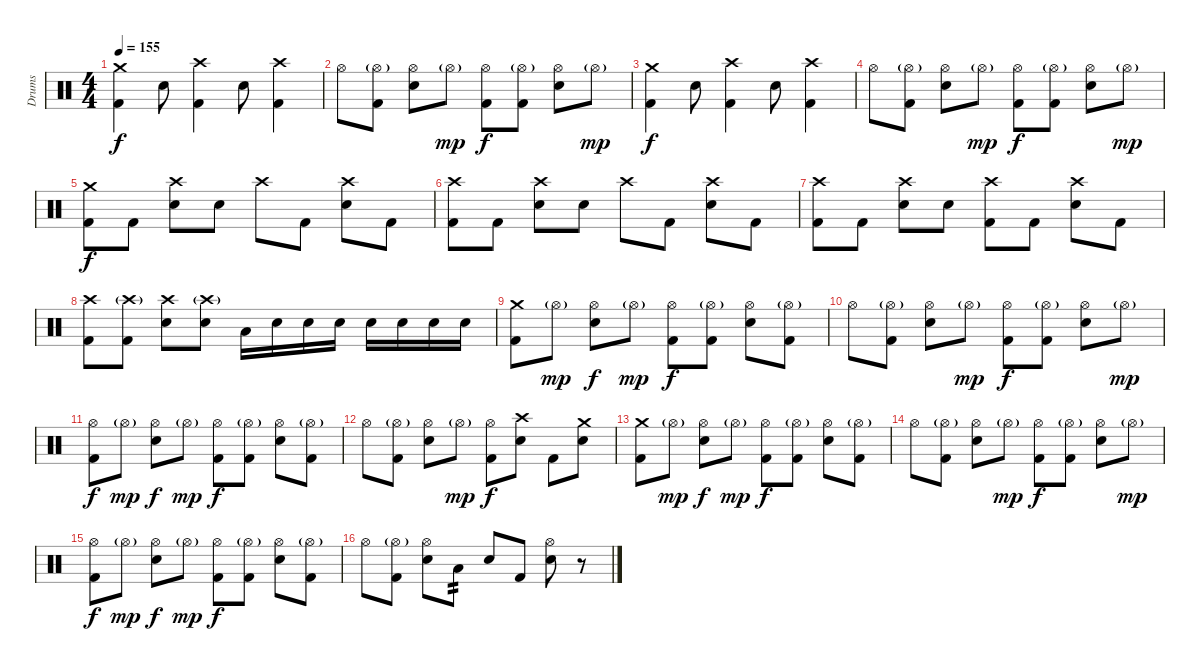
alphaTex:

\track ("Drums" "Drums") {instrument percussion}
\staff {score}
\articulation defaults
\ts (4 4)
\tempo 155
\clef neutral
\ks c
("Crash medium (hit)" "Kick (hit) 2").4{dy f} "Electric Snare (hit)".8 ("Crash high (hit)" "Kick (hit) 2").4 "Electric Snare (hit)".8 ("Crash high (hit)" "Kick (hit) 2").4 |
"Hi-Hat (open)".8 ("Hi-Hat (open)"{g} "Kick (hit) 2").8 ("Hi-Hat (open)" "Electric Snare (hit)").8 "Hi-Hat (open)"{g}.8{dy mp} ("Hi-Hat (open)" "Kick (hit) 2").8{dy f} ("Hi-Hat (open)"{g} "Kick (hit) 2").8 ("Hi-Hat (open)" "Electric Snare (hit)").8 "Hi-Hat (open)"{g}.8{dy mp} |
("Crash medium (hit)" "Kick (hit) 2").4{dy f} "Electric Snare (hit)".8 ("Crash high (hit)" "Kick (hit) 2").4 "Electric Snare (hit)".8 ("Crash high (hit)" "Kick (hit) 2").4 |
"Hi-Hat (open)".8 ("Hi-Hat (open)"{g} "Kick (hit) 2").8 ("Hi-Hat (open)" "Electric Snare (hit)").8 "Hi-Hat (open)"{g}.8{dy mp} ("Hi-Hat (open)" "Kick (hit) 2").8{dy f} ("Hi-Hat (open)"{g} "Kick (hit) 2").8 ("Hi-Hat (open)" "Electric Snare (hit)").8 "Hi-Hat (open)"{g}.8{dy mp} |
("Crash medium (hit)" "Kick (hit) 2").8{dy f} "Kick (hit) 2".8 ("Crash high (hit)" "Electric Snare (hit)").8 "Electric Snare (hit)".8 "Crash high (hit)".8 "Kick (hit) 2".8 ("Crash high (hit)" "Electric Snare (hit)").8 "Kick (hit) 2".8 |
("Crash high (hit)" "Kick (hit) 2").8 "Kick (hit) 2".8 ("Crash high (hit)" "Electric Snare (hit)").8 "Electric Snare (hit)".8 "Crash high (hit)".8 "Kick (hit) 2".8 ("Crash high (hit)" "Electric Snare (hit)").8 "Kick (hit) 2".8 |
("Crash high (hit)" "Kick (hit) 2").8 "Kick (hit) 2".8 ("Crash high (hit)" "Electric Snare (hit)").8 "Electric Snare (hit)".8 ("Crash high (hit)" "Kick (hit) 2").8 "Kick (hit) 2".8 ("Crash high (hit)" "Electric Snare (hit)").8 "Kick (hit) 2".8 |
("Crash high (hit)" "Kick (hit) 2").8 ("Crash high (hit)"{g} "Kick (hit) 2").8 ("Crash high (hit)" "Electric Snare (hit)").8 ("Crash high (hit)"{g} "Electric Snare (hit)").8 "Low Tom (hit)".16 "Electric Snare (hit)".16 "Electric Snare (hit)".16 "Electric Snare (hit)".16 "Electric Snare (hit)".16 "Electric Snare (hit)".16 "Electric Snare (hit)".16 "Electric Snare (hit)".16 |
("Crash medium (hit)" "Kick (hit) 2").8 "Hi-Hat (open)"{g}.8{dy mp} ("Hi-Hat (open)" "Electric Snare (hit)").8{dy f} "Hi-Hat (open)"{g}.8{dy mp} ("Hi-Hat (open)" "Kick (hit) 2").8{dy f} ("Hi-Hat (open)"{g} "Kick (hit) 2").8 ("Hi-Hat (open)" "Electric Snare (hit)").8 ("Hi-Hat (open)"{g} "Kick (hit) 2").8 |
"Hi-Hat (open)".8 ("Hi-Hat (open)"{g} "Kick (hit) 2").8 ("Hi-Hat (open)" "Electric Snare (hit)").8 "Hi-Hat (open)"{g}.8{dy mp} ("Hi-Hat (open)" "Kick (hit) 2").8{dy f} ("Hi-Hat (open)"{g} "Kick (hit) 2").8 ("Hi-Hat (open)" "Electric Snare (hit)").8 "Hi-Hat (open)"{g}.8{dy mp} |
("Hi-Hat (open)" "Kick (hit) 2").8{dy f} "Hi-Hat (open)"{g}.8{dy mp} ("Hi-Hat (open)" "Electric Snare (hit)").8{dy f} "Hi-Hat (open)"{g}.8{dy mp} ("Hi-Hat (open)" "Kick (hit) 2").8{dy f} ("Hi-Hat (open)"{g} "Kick (hit) 2").8 ("Hi-Hat (open)" "Electric Snare (hit)").8 ("Hi-Hat (open)"{g} "Kick (hit) 2").8 |
"Hi-Hat (open)".8 ("Hi-Hat (open)"{g} "Kick (hit) 2").8 ("Hi-Hat (open)" "Electric Snare (hit)").8 "Hi-Hat (open)"{g}.8{dy mp} ("Hi-Hat (open)" "Kick (hit) 2").8{dy f} ("Crash high (hit)" "Electric Snare (hit)").8 "Kick (hit) 2".8 ("Crash medium (hit)" "Electric Snare (hit)").8 |
("Crash medium (hit)" "Kick (hit) 2").8 "Hi-Hat (open)"{g}.8{dy mp} ("Hi-Hat (open)" "Electric Snare (hit)").8{dy f} "Hi-Hat (open)"{g}.8{dy mp} ("Hi-Hat (open)" "Kick (hit) 2").8{dy f} ("Hi-Hat (open)"{g} "Kick (hit) 2").8 ("Hi-Hat (open)" "Electric Snare (hit)").8 ("Hi-Hat (open)"{g} "Kick (hit) 2").8 |
"Hi-Hat (open)".8 ("Hi-Hat (open)"{g} "Kick (hit) 2").8 ("Hi-Hat (open)" "Electric Snare (hit)").8 "Hi-Hat (open)"{g}.8{dy mp} ("Hi-Hat (open)" "Kick (hit) 2").8{dy f} ("Hi-Hat (open)"{g} "Kick (hit) 2").8 ("Hi-Hat (open)" "Electric Snare (hit)").8 "Hi-Hat (open)"{g}.8{dy mp} |
("Hi-Hat (open)" "Kick (hit) 2").8{dy f} "Hi-Hat (open)"{g}.8{dy mp} ("Hi-Hat (open)" "Electric Snare (hit)").8{dy f} "Hi-Hat (open)"{g}.8{dy mp} ("Hi-Hat (open)" "Kick (hit) 2").8{dy f} ("Hi-Hat (open)"{g} "Kick (hit) 2").8 ("Hi-Hat (open)" "Electric Snare (hit)").8 ("Hi-Hat (open)"{g} "Kick (hit) 2").8 |
"Hi-Hat (open)".8 ("Hi-Hat (open)"{g} "Kick (hit) 2").8 ("Hi-Hat (open)" "Electric Snare (hit)").8 "Low Tom (hit)".8{tp 2} "Electric Snare (hit)".8 "Kick (hit) 2".8 ("Electric Snare (hit)" "Hi-Hat (open)").8 r.8
